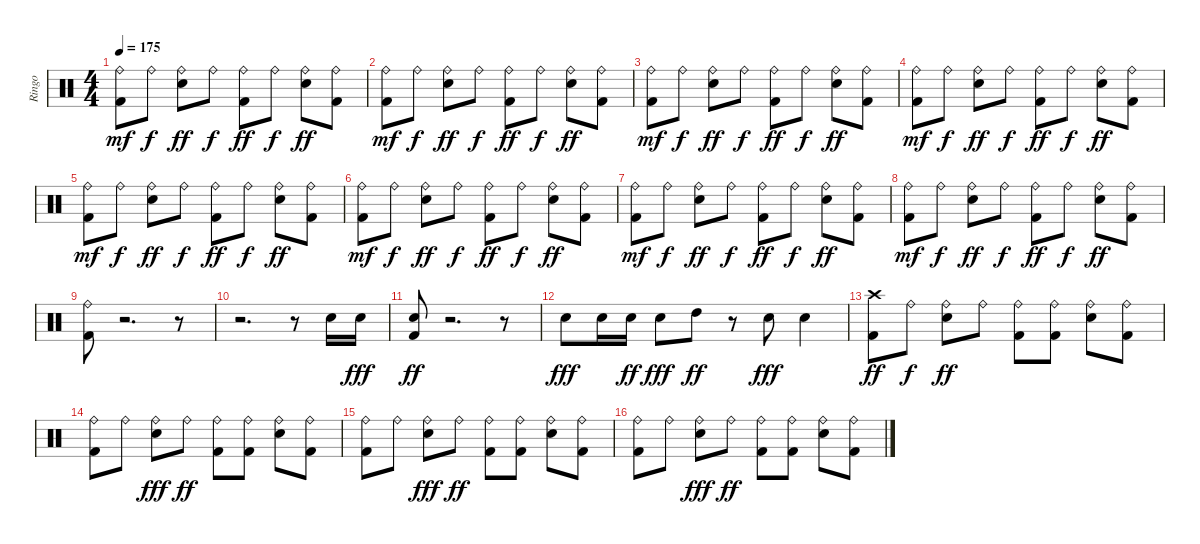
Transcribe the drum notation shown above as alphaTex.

\track ("Ringo" "Ringo") {instrument percussion}
\staff {score}
\articulation defaults
\ts (4 4)
\tempo 175
\clef neutral
\ks c
("Kick (hit) 2" "Ride (bell)").8{dy mf} "Ride (bell)".8{dy f} ("Snare (hit) 2" "Ride (bell)").8{dy ff} "Ride (bell)".8{dy f} ("Kick (hit) 2" "Ride (bell)").8{dy ff} "Ride (bell)".8{dy f} ("Snare (hit) 2" "Ride (bell)").8{dy ff} ("Kick (hit) 2" "Ride (bell)").8 |
("Kick (hit) 2" "Ride (bell)").8{dy mf} "Ride (bell)".8{dy f} ("Snare (hit) 2" "Ride (bell)").8{dy ff} "Ride (bell)".8{dy f} ("Kick (hit) 2" "Ride (bell)").8{dy ff} "Ride (bell)".8{dy f} ("Snare (hit) 2" "Ride (bell)").8{dy ff} ("Kick (hit) 2" "Ride (bell)").8 |
("Kick (hit) 2" "Ride (bell)").8{dy mf} "Ride (bell)".8{dy f} ("Snare (hit) 2" "Ride (bell)").8{dy ff} "Ride (bell)".8{dy f} ("Kick (hit) 2" "Ride (bell)").8{dy ff} "Ride (bell)".8{dy f} ("Snare (hit) 2" "Ride (bell)").8{dy ff} ("Kick (hit) 2" "Ride (bell)").8 |
("Kick (hit) 2" "Ride (bell)").8{dy mf} "Ride (bell)".8{dy f} ("Snare (hit) 2" "Ride (bell)").8{dy ff} "Ride (bell)".8{dy f} ("Kick (hit) 2" "Ride (bell)").8{dy ff} "Ride (bell)".8{dy f} ("Snare (hit) 2" "Ride (bell)").8{dy ff} ("Kick (hit) 2" "Ride (bell)").8 |
("Kick (hit) 2" "Ride (bell)").8{dy mf} "Ride (bell)".8{dy f} ("Snare (hit) 2" "Ride (bell)").8{dy ff} "Ride (bell)".8{dy f} ("Kick (hit) 2" "Ride (bell)").8{dy ff} "Ride (bell)".8{dy f} ("Snare (hit) 2" "Ride (bell)").8{dy ff} ("Kick (hit) 2" "Ride (bell)").8 |
("Kick (hit) 2" "Ride (bell)").8{dy mf} "Ride (bell)".8{dy f} ("Snare (hit) 2" "Ride (bell)").8{dy ff} "Ride (bell)".8{dy f} ("Kick (hit) 2" "Ride (bell)").8{dy ff} "Ride (bell)".8{dy f} ("Snare (hit) 2" "Ride (bell)").8{dy ff} ("Kick (hit) 2" "Ride (bell)").8 |
("Kick (hit) 2" "Ride (bell)").8{dy mf} "Ride (bell)".8{dy f} ("Snare (hit) 2" "Ride (bell)").8{dy ff} "Ride (bell)".8{dy f} ("Kick (hit) 2" "Ride (bell)").8{dy ff} "Ride (bell)".8{dy f} ("Snare (hit) 2" "Ride (bell)").8{dy ff} ("Kick (hit) 2" "Ride (bell)").8 |
("Kick (hit) 2" "Ride (bell)").8{dy mf} "Ride (bell)".8{dy f} ("Snare (hit) 2" "Ride (bell)").8{dy ff} "Ride (bell)".8{dy f} ("Kick (hit) 2" "Ride (bell)").8{dy ff} "Ride (bell)".8{dy f} ("Snare (hit) 2" "Ride (bell)").8{dy ff} ("Kick (hit) 2" "Ride (bell)").8 |
("Kick (hit) 2" "Ride (bell)").8 r.2{d} r.8 |
r.2{d} r.8 "Snare (hit) 2".16 "Snare (hit) 2".16{dy fff} |
("Snare (hit) 2" "Kick (hit) 2").8{dy ff} r.2{d} r.8 |
"Snare (hit) 2".8{dy fff} "Snare (hit) 2".16 "Snare (hit) 2".16{dy ff} "Snare (hit) 2".8{dy fff} "High Tom (hit)".8{dy ff} r.8 "Snare (hit) 2".8{dy fff} "Snare (hit) 2".4 |
("Kick (hit) 2" "Crash high (hit)").8{dy ff} "Ride (bell)".8{dy f} ("Snare (hit) 2" "Ride (bell)").8{dy ff} "Ride (bell)".8 ("Kick (hit) 2" "Ride (bell)").8 ("Kick (hit) 2" "Ride (bell)").8 ("Snare (hit) 2" "Ride (bell)").8 ("Kick (hit) 2" "Ride (bell)").8 |
("Kick (hit) 2" "Ride (bell)").8 "Ride (bell)".8 ("Ride (bell)" "Snare (hit) 2").8{dy fff} "Ride (bell)".8{dy ff} ("Kick (hit) 2" "Ride (bell)").8 ("Kick (hit) 2" "Ride (bell)").8 ("Snare (hit) 2" "Ride (bell)").8 ("Ride (bell)" "Kick (hit) 2").8 |
("Kick (hit) 2" "Ride (bell)").8 "Ride (bell)".8 ("Ride (bell)" "Snare (hit) 2").8{dy fff} "Ride (bell)".8{dy ff} ("Kick (hit) 2" "Ride (bell)").8 ("Kick (hit) 2" "Ride (bell)").8 ("Snare (hit) 2" "Ride (bell)").8 ("Ride (bell)" "Kick (hit) 2").8 |
("Kick (hit) 2" "Ride (bell)").8 "Ride (bell)".8 ("Ride (bell)" "Snare (hit) 2").8{dy fff} "Ride (bell)".8{dy ff} ("Kick (hit) 2" "Ride (bell)").8 ("Kick (hit) 2" "Ride (bell)").8 ("Snare (hit) 2" "Ride (bell)").8 ("Ride (bell)" "Kick (hit) 2").8
